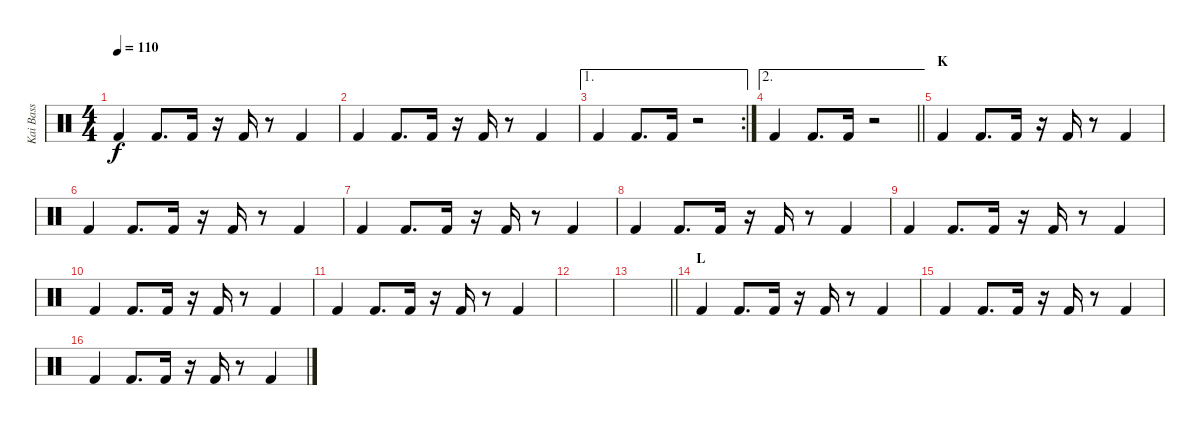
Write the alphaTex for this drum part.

\track ("Kai Bass" "Kai Bass") {instrument percussion}
\staff {score}
\articulation defaults
\ts (4 4)
\tempo 110
\clef neutral
\ks c "Kick (hit) 2".4{dy f} "Kick (hit) 2".8{d} "Kick (hit) 2".16
r.16 "Kick (hit) 2".16 r.8 "Kick (hit) 2".4 |
"Kick (hit) 2".4 "Kick (hit) 2".8{d} "Kick (hit) 2".16 r.16 "Kick (hit) 2".16 r.8 "Kick (hit) 2".4 |
\ae 1
\rc 2 "Kick (hit) 2".4 "Kick (hit) 2".8{d} "Kick (hit) 2".16
r.2 |
\ae 2
\barLineRight lightlight "Kick (hit) 2".4 "Kick (hit) 2".8{d} "Kick (hit) 2".16
r.2 |
\section ("" "K")
"Kick (hit) 2".4 "Kick (hit) 2".8{d} "Kick (hit) 2".16 r.16 "Kick (hit) 2".16 r.8 "Kick (hit) 2".4 |
"Kick (hit) 2".4 "Kick (hit) 2".8{d} "Kick (hit) 2".16 r.16 "Kick (hit) 2".16 r.8 "Kick (hit) 2".4 |
"Kick (hit) 2".4 "Kick (hit) 2".8{d} "Kick (hit) 2".16 r.16 "Kick (hit) 2".16 r.8 "Kick (hit) 2".4 |
"Kick (hit) 2".4 "Kick (hit) 2".8{d} "Kick (hit) 2".16 r.16 "Kick (hit) 2".16 r.8 "Kick (hit) 2".4 |
"Kick (hit) 2".4 "Kick (hit) 2".8{d} "Kick (hit) 2".16 r.16 "Kick (hit) 2".16 r.8 "Kick (hit) 2".4 |
"Kick (hit) 2".4 "Kick (hit) 2".8{d} "Kick (hit) 2".16 r.16 "Kick (hit) 2".16 r.8 "Kick (hit) 2".4 |
"Kick (hit) 2".4 "Kick (hit) 2".8{d} "Kick (hit) 2".16 r.16 "Kick (hit) 2".16 r.8 "Kick (hit) 2".4 |
|
\barLineRight lightlight
|
\section ("" "L")
"Kick (hit) 2".4 "Kick (hit) 2".8{d} "Kick (hit) 2".16 r.16 "Kick (hit) 2".16 r.8 "Kick (hit) 2".4 |
"Kick (hit) 2".4 "Kick (hit) 2".8{d} "Kick (hit) 2".16 r.16 "Kick (hit) 2".16 r.8 "Kick (hit) 2".4 |
"Kick (hit) 2".4 "Kick (hit) 2".8{d} "Kick (hit) 2".16 r.16 "Kick (hit) 2".16 r.8 "Kick (hit) 2".4
